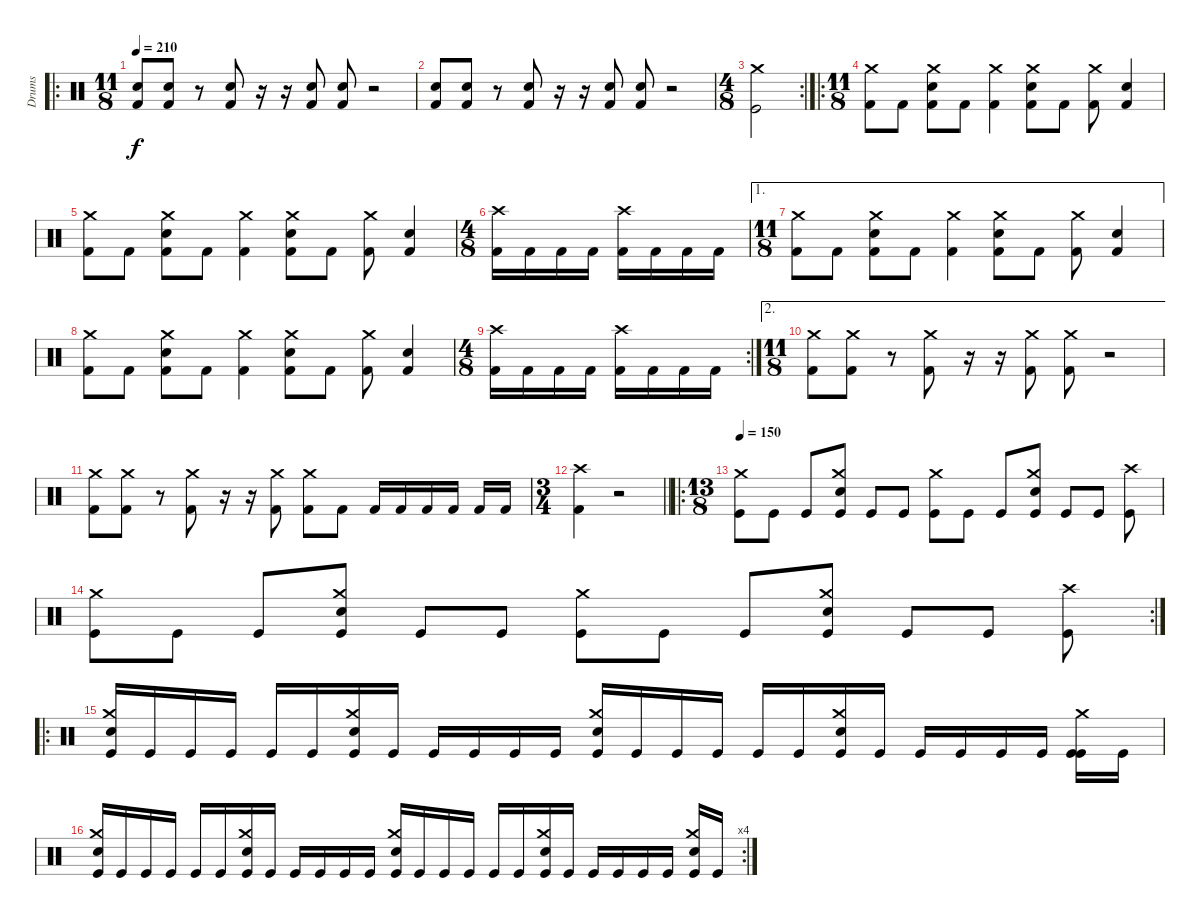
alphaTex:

\track ("Drums" "Drums") {instrument percussion}
\staff {score}
\articulation defaults
\ro
\ts (11 8)
\tempo 210
\clef neutral
\ks c
("Snare (hit) 2" "Kick (hit) 2").8{dy f} ("Snare (hit) 2" "Kick (hit) 2").8 r.8 ("Snare (hit) 2" "Kick (hit) 2").8 r.16 r.16 ("Snare (hit) 2" "Kick (hit) 2").8 ("Snare (hit) 2" "Kick (hit) 2").8 r.2 |
("Snare (hit) 2" "Kick (hit) 2").8 ("Snare (hit) 2" "Kick (hit) 2").8 r.8 ("Snare (hit) 2" "Kick (hit) 2").8 r.16 r.16 ("Snare (hit) 2" "Kick (hit) 2").8 ("Snare (hit) 2" "Kick (hit) 2").8 r.2 |
\rc 2
\ts (4 8)
("Crash medium (hit)" "Kick (hit)").2 |
\ro
\ts (11 8)
("Crash medium (hit)" "Kick (hit) 2").8 "Kick (hit) 2".8 ("Crash medium (hit)" "Snare (hit) 2" "Kick (hit) 2").8 "Kick (hit) 2".8 ("Crash medium (hit)" "Kick (hit) 2").4 ("Crash medium (hit)" "Snare (hit) 2" "Kick (hit) 2").8 "Kick (hit) 2".8 ("Crash medium (hit)" "Kick (hit) 2").8 ("Snare (hit) 2" "Kick (hit) 2").4 |
("Crash medium (hit)" "Kick (hit) 2").8 "Kick (hit) 2".8 ("Crash medium (hit)" "Snare (hit) 2" "Kick (hit) 2").8 "Kick (hit) 2".8 ("Crash medium (hit)" "Kick (hit) 2").4 ("Crash medium (hit)" "Snare (hit) 2" "Kick (hit) 2").8 "Kick (hit) 2".8 ("Crash medium (hit)" "Kick (hit) 2").8 ("Snare (hit) 2" "Kick (hit) 2").4 |
\ts (4 8)
("Crash high (hit)" "Kick (hit) 2").16 "Kick (hit) 2".16 "Kick (hit) 2".16 "Kick (hit) 2".16 ("Crash high (hit)" "Kick (hit) 2").16 "Kick (hit) 2".16 "Kick (hit) 2".16 "Kick (hit) 2".16 |
\ae 1
\ts (11 8)
("Crash medium (hit)" "Kick (hit) 2").8 "Kick (hit) 2".8 ("Crash medium (hit)" "Snare (hit) 2" "Kick (hit) 2").8 "Kick (hit) 2".8 ("Crash medium (hit)" "Kick (hit) 2").4 ("Crash medium (hit)" "Snare (hit) 2" "Kick (hit) 2").8 "Kick (hit) 2".8 ("Crash medium (hit)" "Kick (hit) 2").8 ("Snare (hit) 2" "Kick (hit) 2").4 |
("Crash medium (hit)" "Kick (hit) 2").8 "Kick (hit) 2".8 ("Crash medium (hit)" "Snare (hit) 2" "Kick (hit) 2").8 "Kick (hit) 2".8 ("Crash medium (hit)" "Kick (hit) 2").4 ("Crash medium (hit)" "Snare (hit) 2" "Kick (hit) 2").8 "Kick (hit) 2".8 ("Crash medium (hit)" "Kick (hit) 2").8 ("Snare (hit) 2" "Kick (hit) 2").4 |
\rc 2
\ts (4 8)
("Crash high (hit)" "Kick (hit) 2").16 "Kick (hit) 2".16 "Kick (hit) 2".16 "Kick (hit) 2".16 ("Crash high (hit)" "Kick (hit) 2").16 "Kick (hit) 2".16 "Kick (hit) 2".16 "Kick (hit) 2".16 |
\ae 2
\ts (11 8)
("Crash medium (hit)" "Kick (hit) 2").8 ("Crash medium (hit)" "Kick (hit) 2").8 r.8 ("Crash medium (hit)" "Kick (hit) 2").8 r.16 r.16 ("Crash medium (hit)" "Kick (hit) 2").8 ("Crash medium (hit)" "Kick (hit) 2").8 r.2 |
("Crash medium (hit)" "Kick (hit) 2").8 ("Crash medium (hit)" "Kick (hit) 2").8 r.8 ("Crash medium (hit)" "Kick (hit) 2").8 r.16 r.16 ("Crash medium (hit)" "Kick (hit) 2").8 ("Crash medium (hit)" "Kick (hit) 2").8 "Kick (hit) 2".8 "Kick (hit) 2".16 "Kick (hit) 2".16 "Kick (hit) 2".16 "Kick (hit) 2".16 "Kick (hit) 2".16 "Kick (hit) 2".16 |
\ts (3 4)
\barLineRight lightlight
("Crash high (hit)" "Kick (hit) 2").4 r.2 |
\ro
\ts (13 8)
\tempo 150
("Crash medium (hit)" "Kick (hit)").8 "Kick (hit)".8 "Kick (hit)".8 ("Crash medium (hit)" "Snare (hit) 2" "Kick (hit)").8 "Kick (hit)".8 "Kick (hit)".8 ("Crash medium (hit)" "Kick (hit)").8 "Kick (hit)".8 "Kick (hit)".8 ("Crash medium (hit)" "Snare (hit) 2" "Kick (hit)").8 "Kick (hit)".8 "Kick (hit)".8 ("Crash high (hit)" "Kick (hit)").8 |
\rc 2
("Crash medium (hit)" "Kick (hit)").8 "Kick (hit)".8 "Kick (hit)".8 ("Crash medium (hit)" "Snare (hit) 2" "Kick (hit)").8 "Kick (hit)".8 "Kick (hit)".8 ("Crash medium (hit)" "Kick (hit)").8 "Kick (hit)".8 "Kick (hit)".8 ("Crash medium (hit)" "Snare (hit) 2" "Kick (hit)").8 "Kick (hit)".8 "Kick (hit)".8 ("Crash high (hit)" "Kick (hit)").8 |
\ro
("Crash medium (hit)" "Snare (hit) 2" "Kick (hit)").16 "Kick (hit)".16 "Kick (hit)".16 "Kick (hit)".16 "Kick (hit)".16 "Kick (hit)".16 ("Crash medium (hit)" "Snare (hit) 2" "Kick (hit)").16 "Kick (hit)".16 "Kick (hit)".16 "Kick (hit)".16 "Kick (hit)".16 "Kick (hit)".16 ("Crash medium (hit)" "Snare (hit) 2" "Kick (hit)").16 "Kick (hit)".16 "Kick (hit)".16 "Kick (hit)".16 "Kick (hit)".16 "Kick (hit)".16 ("Crash medium (hit)" "Snare (hit) 2" "Kick (hit)").16 "Kick (hit)".16 "Kick (hit)".16 "Kick (hit)".16 "Kick (hit)".16 "Kick (hit)".16 ("Crash medium (hit)" "Kick (hit)" "Kick (hit)").16 "Kick (hit)".16 |
\rc 4
("Crash medium (hit)" "Snare (hit) 2" "Kick (hit)").16 "Kick (hit)".16 "Kick (hit)".16 "Kick (hit)".16 "Kick (hit)".16 "Kick (hit)".16 ("Crash medium (hit)" "Snare (hit) 2" "Kick (hit)").16 "Kick (hit)".16 "Kick (hit)".16 "Kick (hit)".16 "Kick (hit)".16 "Kick (hit)".16 ("Crash medium (hit)" "Snare (hit) 2" "Kick (hit)").16 "Kick (hit)".16 "Kick (hit)".16 "Kick (hit)".16 "Kick (hit)".16 "Kick (hit)".16 ("Crash medium (hit)" "Snare (hit) 2" "Kick (hit)").16 "Kick (hit)".16 "Kick (hit)".16 "Kick (hit)".16 "Kick (hit)".16 "Kick (hit)".16 ("Crash medium (hit)" "Snare (hit) 2" "Kick (hit)").16 "Kick (hit)".16
